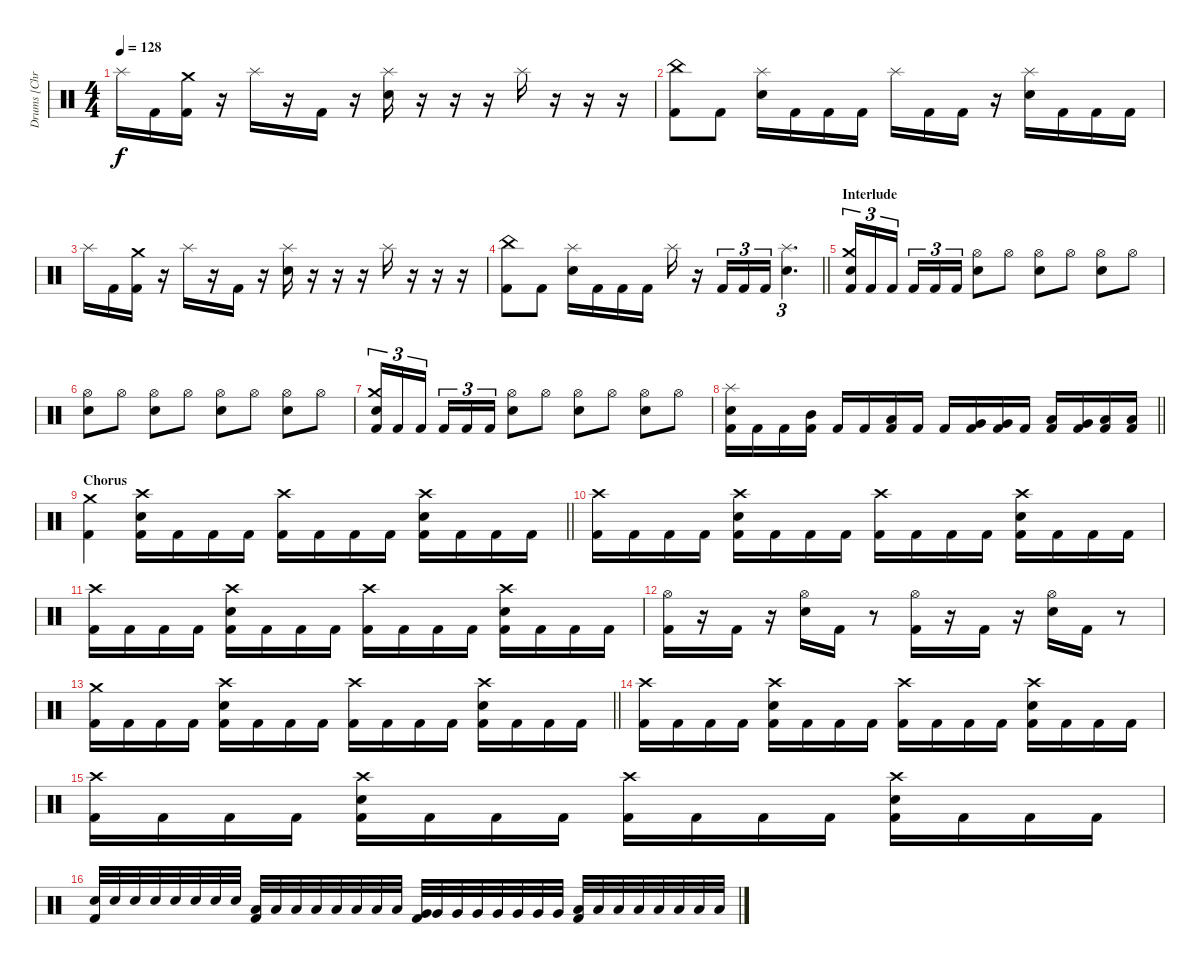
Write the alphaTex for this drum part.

\track ("Drums [Chris Adler]" "Drums [Chr") {instrument percussion}
\staff {score}
\articulation defaults
\ts (4 4)
\tempo 128
\clef neutral
\ks c "Splash (hit)".16{dy f} "Kick (hit) 2".16
("Crash medium (hit)" "Kick (hit) 2").16 r.16 "Splash (hit)".16 r.16 "Kick (hit) 2".16 r.16 ("Splash (hit)" "Snare (hit) 2").16 r.16 r.16 r.16 "Splash (hit)".16 r.16 r.16 r.16 |
("China (hit)" "Kick (hit) 2").8 "Kick (hit) 2".8 ("Splash (hit)" "Snare (hit) 2").16 "Kick (hit) 2".16 "Kick (hit) 2".16 "Kick (hit) 2".16 "Splash (hit)".16 "Kick (hit) 2".16 "Kick (hit) 2".16 r.16 ("Splash (hit)" "Snare (hit) 2").16 "Kick (hit) 2".16 "Kick (hit) 2".16 "Kick (hit) 2".16 |
"Splash (hit)".16 "Kick (hit) 2".16 ("Crash medium (hit)" "Kick (hit) 2").16 r.16 "Splash (hit)".16 r.16 "Kick (hit) 2".16 r.16 ("Splash (hit)" "Snare (hit) 2").16 r.16 r.16 r.16 "Splash (hit)".16 r.16 r.16 r.16 |
\barLineRight lightlight
("China (hit)" "Kick (hit) 2").8 "Kick (hit) 2".8 ("Splash (hit)" "Snare (hit) 2").16 "Kick (hit) 2".16 "Kick (hit) 2".16 "Kick (hit) 2".16 "Splash (hit)".16 r.16 "Kick (hit) 2".16{tu (3 2)} "Kick (hit) 2".16{tu (3 2)} "Kick (hit) 2".16{tu (3 2)} ("Splash (hit)" "Snare (hit) 2").4{d tu (3 2)} |
\section ("" "Interlude")
("Crash medium (hit)" "Snare (hit) 2" "Kick (hit) 2").16{tu (3 2)} "Kick (hit) 2".16{tu (3 2)} "Kick (hit) 2".16{tu (3 2) beam splitsecondary} "Kick (hit) 2".16{tu (3 2)} "Kick (hit) 2".16{tu (3 2)} "Kick (hit) 2".16{tu (3 2)} ("Hi-Hat (open)" "Snare (hit) 2").8 "Hi-Hat (open)".8 ("Hi-Hat (open)" "Snare (hit) 2").8 "Hi-Hat (open)".8 ("Hi-Hat (open)" "Snare (hit) 2").8 "Hi-Hat (open)".8 |
("Hi-Hat (open)" "Snare (hit) 2").8 "Hi-Hat (open)".8 ("Hi-Hat (open)" "Snare (hit) 2").8 "Hi-Hat (open)".8 ("Hi-Hat (open)" "Snare (hit) 2").8 "Hi-Hat (open)".8 ("Hi-Hat (open)" "Snare (hit) 2").8 "Hi-Hat (open)".8 |
("Crash medium (hit)" "Snare (hit) 2" "Kick (hit) 2").16{tu (3 2)} "Kick (hit) 2".16{tu (3 2)} "Kick (hit) 2".16{tu (3 2) beam splitsecondary} "Kick (hit) 2".16{tu (3 2)} "Kick (hit) 2".16{tu (3 2)} "Kick (hit) 2".16{tu (3 2)} ("Hi-Hat (open)" "Snare (hit) 2").8 "Hi-Hat (open)".8 ("Hi-Hat (open)" "Snare (hit) 2").8 "Hi-Hat (open)".8 ("Hi-Hat (open)" "Snare (hit) 2").8 "Hi-Hat (open)".8 |
\barLineRight lightlight
("Splash (hit)" "Snare (hit) 2" "Kick (hit) 2").16 "Kick (hit) 2".16 "Kick (hit) 2".16 ("Mid Tom (hit)" "Kick (hit) 2").16 "Kick (hit) 2".16 "Kick (hit) 2".16 ("Low Tom (hit)" "Kick (hit) 2").16 "Kick (hit) 2".16 "Kick (hit) 2".16 ("Very Low Tom (hit)" "Kick (hit) 2").16 ("Very Low Tom (hit)" "Kick (hit) 2").16 "Kick (hit) 2".16 ("Low Floor Tom (hit)" "Kick (hit) 2").16 ("Very Low Tom (hit)" "Kick (hit) 2").16 ("Low Floor Tom (hit)" "Kick (hit) 2").16 ("Low Floor Tom (hit)" "Kick (hit) 2").16 |
\section ("" "Chorus")
\barLineRight lightlight
("Crash medium (hit)" "Kick (hit) 2").4 ("Crash high (hit)" "Snare (hit) 2" "Kick (hit) 2").16 "Kick (hit) 2".16 "Kick (hit) 2".16 "Kick (hit) 2".16 ("Crash high (hit)" "Kick (hit) 2").16 "Kick (hit) 2".16 "Kick (hit) 2".16 "Kick (hit) 2".16 ("Crash high (hit)" "Snare (hit) 2" "Kick (hit) 2").16 "Kick (hit) 2".16 "Kick (hit) 2".16 "Kick (hit) 2".16 |
("Crash high (hit)" "Kick (hit) 2").16 "Kick (hit) 2".16 "Kick (hit) 2".16 "Kick (hit) 2".16 ("Crash high (hit)" "Snare (hit) 2" "Kick (hit) 2").16 "Kick (hit) 2".16 "Kick (hit) 2".16 "Kick (hit) 2".16 ("Crash high (hit)" "Kick (hit) 2").16 "Kick (hit) 2".16 "Kick (hit) 2".16 "Kick (hit) 2".16 ("Crash high (hit)" "Snare (hit) 2" "Kick (hit) 2").16 "Kick (hit) 2".16 "Kick (hit) 2".16 "Kick (hit) 2".16 |
("Crash high (hit)" "Kick (hit) 2").16 "Kick (hit) 2".16 "Kick (hit) 2".16 "Kick (hit) 2".16 ("Crash high (hit)" "Snare (hit) 2" "Kick (hit) 2").16 "Kick (hit) 2".16 "Kick (hit) 2".16 "Kick (hit) 2".16 ("Crash high (hit)" "Kick (hit) 2").16 "Kick (hit) 2".16 "Kick (hit) 2".16 "Kick (hit) 2".16 ("Crash high (hit)" "Snare (hit) 2" "Kick (hit) 2").16 "Kick (hit) 2".16 "Kick (hit) 2".16 "Kick (hit) 2".16 |
("Hi-Hat (open)" "Kick (hit) 2").16 r.16 "Kick (hit) 2".16 r.16 ("Hi-Hat (open)" "Snare (hit) 2").16 "Kick (hit) 2".16 r.8 ("Hi-Hat (open)" "Kick (hit) 2").16 r.16 "Kick (hit) 2".16 r.16 ("Hi-Hat (open)" "Snare (hit) 2").16 "Kick (hit) 2".16 r.8 |
\barLineRight lightlight
("Crash medium (hit)" "Kick (hit) 2").16 "Kick (hit) 2".16 "Kick (hit) 2".16 "Kick (hit) 2".16 ("Crash high (hit)" "Snare (hit) 2" "Kick (hit) 2").16 "Kick (hit) 2".16 "Kick (hit) 2".16 "Kick (hit) 2".16 ("Crash high (hit)" "Kick (hit) 2").16 "Kick (hit) 2".16 "Kick (hit) 2".16 "Kick (hit) 2".16 ("Crash high (hit)" "Snare (hit) 2" "Kick (hit) 2").16 "Kick (hit) 2".16 "Kick (hit) 2".16 "Kick (hit) 2".16 |
("Crash high (hit)" "Kick (hit) 2").16 "Kick (hit) 2".16 "Kick (hit) 2".16 "Kick (hit) 2".16 ("Crash high (hit)" "Snare (hit) 2" "Kick (hit) 2").16 "Kick (hit) 2".16 "Kick (hit) 2".16 "Kick (hit) 2".16 ("Crash high (hit)" "Kick (hit) 2").16 "Kick (hit) 2".16 "Kick (hit) 2".16 "Kick (hit) 2".16 ("Crash high (hit)" "Snare (hit) 2" "Kick (hit) 2").16 "Kick (hit) 2".16 "Kick (hit) 2".16 "Kick (hit) 2".16 |
("Crash high (hit)" "Kick (hit) 2").16 "Kick (hit) 2".16 "Kick (hit) 2".16 "Kick (hit) 2".16 ("Crash high (hit)" "Snare (hit) 2" "Kick (hit) 2").16 "Kick (hit) 2".16 "Kick (hit) 2".16 "Kick (hit) 2".16 ("Crash high (hit)" "Kick (hit) 2").16 "Kick (hit) 2".16 "Kick (hit) 2".16 "Kick (hit) 2".16 ("Crash high (hit)" "Snare (hit) 2" "Kick (hit) 2").16 "Kick (hit) 2".16 "Kick (hit) 2".16 "Kick (hit) 2".16 |
("Snare (hit) 2" "Kick (hit) 2").32 "Snare (hit) 2".32 "Snare (hit) 2".32 "Snare (hit) 2".32 "Snare (hit) 2".32 "Snare (hit) 2".32 "Snare (hit) 2".32 "Snare (hit) 2".32 ("Low Tom (hit)" "Kick (hit) 2").32 "Low Tom (hit)".32 "Low Tom (hit)".32 "Low Tom (hit)".32 "Low Tom (hit)".32 "Low Tom (hit)".32 "Low Tom (hit)".32 "Low Tom (hit)".32 ("Very Low Tom (hit)" "Kick (hit) 2").32 "Very Low Tom (hit)".32 "Very Low Tom (hit)".32 "Very Low Tom (hit)".32 "Very Low Tom (hit)".32 "Very Low Tom (hit)".32 "Very Low Tom (hit)".32 "Very Low Tom (hit)".32 ("Low Floor Tom (hit)" "Kick (hit) 2").32 "Low Floor Tom (hit)".32 "Low Floor Tom (hit)".32 "Low Floor Tom (hit)".32 "Low Floor Tom (hit)".32 "Low Floor Tom (hit)".32 "Low Floor Tom (hit)".32 "Low Floor Tom (hit)".32
